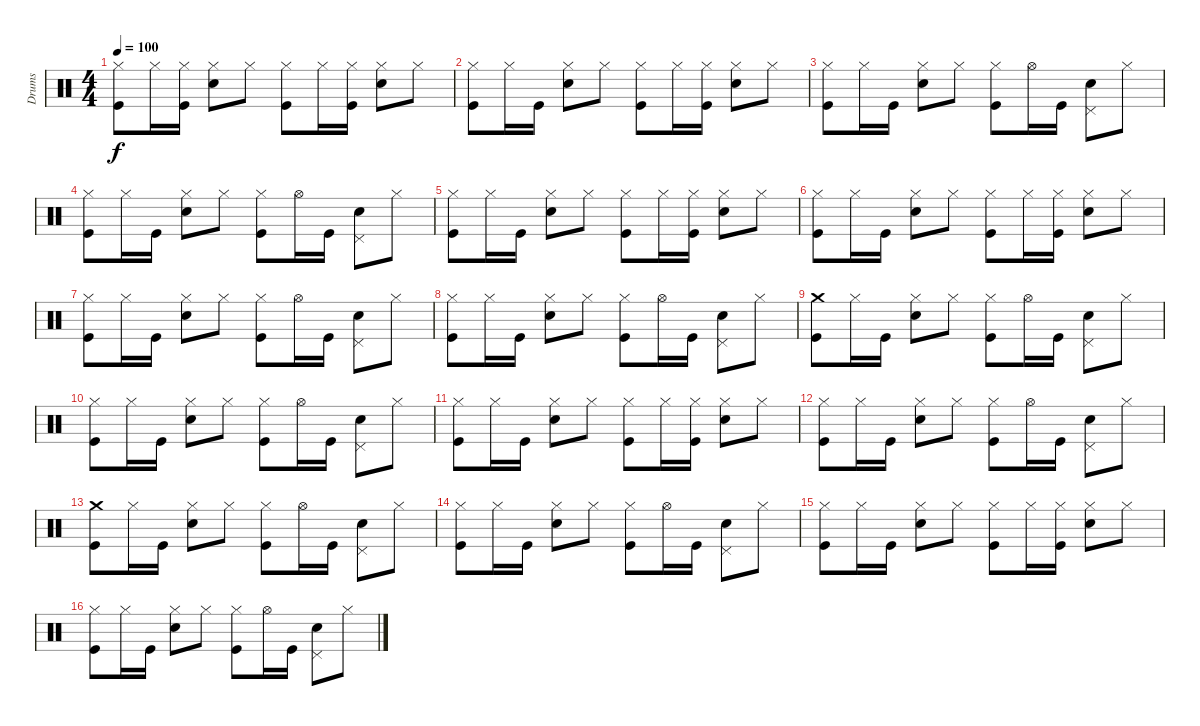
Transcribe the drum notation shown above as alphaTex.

\track ("Drums" "Drums") {instrument percussion}
\staff {score}
\articulation defaults
\ts (4 4)
\tempo 100
\clef neutral
\ks c
("Hi-Hat (closed)" "Kick (hit)").8{dy f} "Hi-Hat (closed)".16 ("Hi-Hat (closed)" "Kick (hit)").16 ("Hi-Hat (closed)" "Snare (hit) 2").8 "Hi-Hat (closed)".8 ("Hi-Hat (closed)" "Kick (hit)").8 "Hi-Hat (closed)".16 ("Hi-Hat (closed)" "Kick (hit)").16 ("Hi-Hat (closed)" "Snare (hit) 2").8 "Hi-Hat (closed)".8 |
("Hi-Hat (closed)" "Kick (hit)").8 "Hi-Hat (closed)".16 "Kick (hit)".16 ("Hi-Hat (closed)" "Snare (hit) 2").8 "Hi-Hat (closed)".8 ("Hi-Hat (closed)" "Kick (hit)").8 "Hi-Hat (closed)".16 ("Hi-Hat (closed)" "Kick (hit)").16 ("Hi-Hat (closed)" "Snare (hit) 2").8 "Hi-Hat (closed)".8 |
("Hi-Hat (closed)" "Kick (hit)").8 "Hi-Hat (closed)".16 "Kick (hit)".16 ("Hi-Hat (closed)" "Snare (hit) 2").8 "Hi-Hat (closed)".8 ("Hi-Hat (closed)" "Kick (hit)").8 "Hi-Hat (open)".16 "Kick (hit)".16 ("Pedal Hi-Hat (hit)" "Snare (hit) 2").8 "Hi-Hat (closed)".8 |
("Hi-Hat (closed)" "Kick (hit)").8 "Hi-Hat (closed)".16 "Kick (hit)".16 ("Hi-Hat (closed)" "Snare (hit) 2").8 "Hi-Hat (closed)".8 ("Hi-Hat (closed)" "Kick (hit)").8 "Hi-Hat (open)".16 "Kick (hit)".16 ("Pedal Hi-Hat (hit)" "Snare (hit) 2").8 "Hi-Hat (closed)".8 |
("Hi-Hat (closed)" "Kick (hit)").8 "Hi-Hat (closed)".16 "Kick (hit)".16 ("Hi-Hat (closed)" "Snare (hit) 2").8 "Hi-Hat (closed)".8 ("Hi-Hat (closed)" "Kick (hit)").8 "Hi-Hat (closed)".16 ("Hi-Hat (closed)" "Kick (hit)").16 ("Hi-Hat (closed)" "Snare (hit) 2").8 "Hi-Hat (closed)".8 |
("Hi-Hat (closed)" "Kick (hit)").8 "Hi-Hat (closed)".16 "Kick (hit)".16 ("Hi-Hat (closed)" "Snare (hit) 2").8 "Hi-Hat (closed)".8 ("Hi-Hat (closed)" "Kick (hit)").8 "Hi-Hat (closed)".16 ("Hi-Hat (closed)" "Kick (hit)").16 ("Hi-Hat (closed)" "Snare (hit) 2").8 "Hi-Hat (closed)".8 |
("Hi-Hat (closed)" "Kick (hit)").8 "Hi-Hat (closed)".16 "Kick (hit)".16 ("Hi-Hat (closed)" "Snare (hit) 2").8 "Hi-Hat (closed)".8 ("Hi-Hat (closed)" "Kick (hit)").8 "Hi-Hat (open)".16 "Kick (hit)".16 ("Pedal Hi-Hat (hit)" "Snare (hit) 2").8 "Hi-Hat (closed)".8 |
("Hi-Hat (closed)" "Kick (hit)").8 "Hi-Hat (closed)".16 "Kick (hit)".16 ("Hi-Hat (closed)" "Snare (hit) 2").8 "Hi-Hat (closed)".8 ("Hi-Hat (closed)" "Kick (hit)").8 "Hi-Hat (open)".16 "Kick (hit)".16 ("Pedal Hi-Hat (hit)" "Snare (hit) 2").8 "Hi-Hat (closed)".8 |
("Crash medium (hit)" "Kick (hit)").8 "Hi-Hat (closed)".16 "Kick (hit)".16 ("Hi-Hat (closed)" "Snare (hit) 2").8 "Hi-Hat (closed)".8 ("Hi-Hat (closed)" "Kick (hit)").8 "Hi-Hat (open)".16 "Kick (hit)".16 ("Pedal Hi-Hat (hit)" "Snare (hit) 2").8 "Hi-Hat (closed)".8 |
("Hi-Hat (closed)" "Kick (hit)").8 "Hi-Hat (closed)".16 "Kick (hit)".16 ("Hi-Hat (closed)" "Snare (hit) 2").8 "Hi-Hat (closed)".8 ("Hi-Hat (closed)" "Kick (hit)").8 "Hi-Hat (open)".16 "Kick (hit)".16 ("Pedal Hi-Hat (hit)" "Snare (hit) 2").8 "Hi-Hat (closed)".8 |
("Hi-Hat (closed)" "Kick (hit)").8 "Hi-Hat (closed)".16 "Kick (hit)".16 ("Hi-Hat (closed)" "Snare (hit) 2").8 "Hi-Hat (closed)".8 ("Hi-Hat (closed)" "Kick (hit)").8 "Hi-Hat (closed)".16 ("Hi-Hat (closed)" "Kick (hit)").16 ("Hi-Hat (closed)" "Snare (hit) 2").8 "Hi-Hat (closed)".8 |
("Hi-Hat (closed)" "Kick (hit)").8 "Hi-Hat (closed)".16 "Kick (hit)".16 ("Hi-Hat (closed)" "Snare (hit) 2").8 "Hi-Hat (closed)".8 ("Hi-Hat (closed)" "Kick (hit)").8 "Hi-Hat (open)".16 "Kick (hit)".16 ("Pedal Hi-Hat (hit)" "Snare (hit) 2").8 "Hi-Hat (closed)".8 |
("Crash medium (hit)" "Kick (hit)").8 "Hi-Hat (closed)".16 "Kick (hit)".16 ("Hi-Hat (closed)" "Snare (hit) 2").8 "Hi-Hat (closed)".8 ("Hi-Hat (closed)" "Kick (hit)").8 "Hi-Hat (open)".16 "Kick (hit)".16 ("Pedal Hi-Hat (hit)" "Snare (hit) 2").8 "Hi-Hat (closed)".8 |
("Hi-Hat (closed)" "Kick (hit)").8 "Hi-Hat (closed)".16 "Kick (hit)".16 ("Hi-Hat (closed)" "Snare (hit) 2").8 "Hi-Hat (closed)".8 ("Hi-Hat (closed)" "Kick (hit)").8 "Hi-Hat (open)".16 "Kick (hit)".16 ("Pedal Hi-Hat (hit)" "Snare (hit) 2").8 "Hi-Hat (closed)".8 |
("Hi-Hat (closed)" "Kick (hit)").8 "Hi-Hat (closed)".16 "Kick (hit)".16 ("Hi-Hat (closed)" "Snare (hit) 2").8 "Hi-Hat (closed)".8 ("Hi-Hat (closed)" "Kick (hit)").8 "Hi-Hat (closed)".16 ("Hi-Hat (closed)" "Kick (hit)").16 ("Hi-Hat (closed)" "Snare (hit) 2").8 "Hi-Hat (closed)".8 |
("Hi-Hat (closed)" "Kick (hit)").8 "Hi-Hat (closed)".16 "Kick (hit)".16 ("Hi-Hat (closed)" "Snare (hit) 2").8 "Hi-Hat (closed)".8 ("Hi-Hat (closed)" "Kick (hit)").8 "Hi-Hat (open)".16 "Kick (hit)".16 ("Pedal Hi-Hat (hit)" "Snare (hit) 2").8 "Hi-Hat (closed)".8
